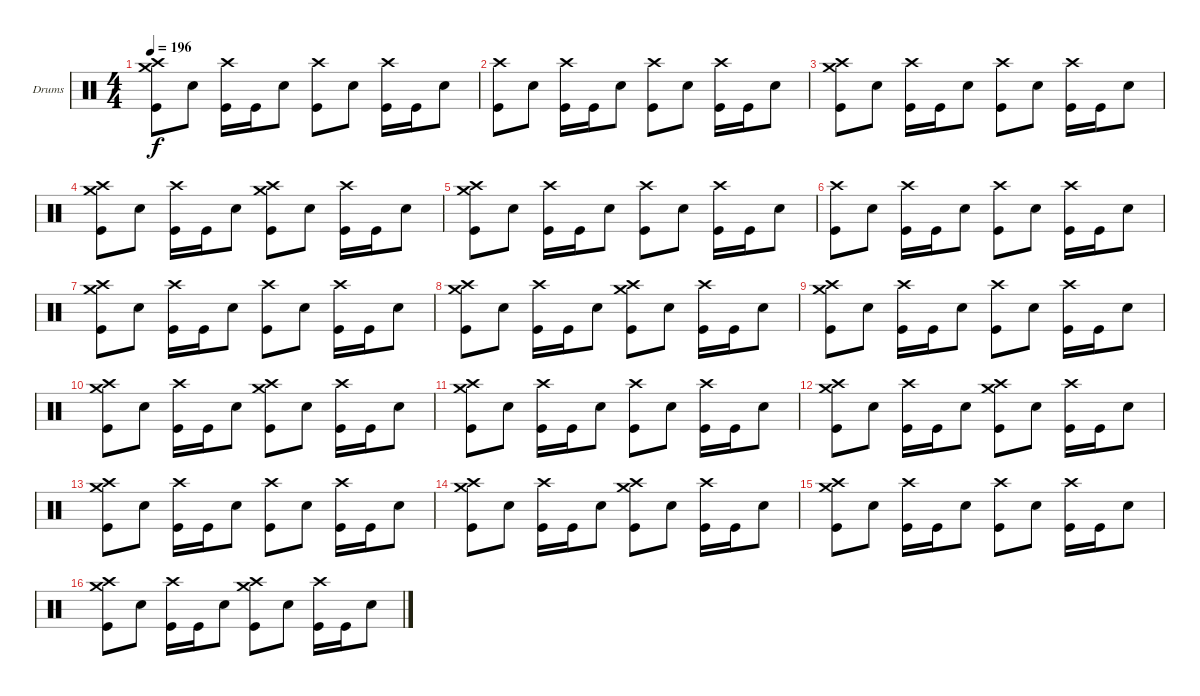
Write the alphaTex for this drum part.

\defaultSystemsLayout 4
\bracketExtendMode groupsimilarinstruments
\firstSystemTrackNameOrientation horizontal
\otherSystemsTrackNameOrientation horizontal
\track ("Lars Ulrich (Drum)" "Drums") {instrument percussion}
\staff {score}
\articulation defaults
\ts (4 4)
\tempo 196
\clef neutral
\scale
0.333333
\ks c
("Crash high (hit)" "Crash medium (hit)" "Kick (hit)").8{dy f} "Snare (hit) 2".8 ("Crash high (hit)" "Kick (hit)").16 "Kick (hit)".16 "Snare (hit) 2".8 ("Crash high (hit)" "Kick (hit)").8 "Snare (hit) 2".8 ("Crash high (hit)" "Kick (hit)").16 "Kick (hit)".16 "Snare (hit) 2".8 |
\scale
0.333333 ("Crash high (hit)" "Kick (hit)").8 "Snare (hit) 2".8 ("Crash high (hit)" "Kick (hit)").16 "Kick (hit)".16 "Snare (hit) 2".8 ("Crash high (hit)" "Kick (hit)").8 "Snare (hit) 2".8 ("Crash high (hit)" "Kick (hit)").16 "Kick (hit)".16 "Snare (hit) 2".8 |
\scale
0.333333 ("Crash high (hit)" "Crash medium (hit)" "Kick (hit)").8 "Snare (hit) 2".8 ("Crash high (hit)" "Kick (hit)").16 "Kick (hit)".16 "Snare (hit) 2".8 ("Crash high (hit)" "Kick (hit)").8 "Snare (hit) 2".8 ("Crash high (hit)" "Kick (hit)").16 "Kick (hit)".16 "Snare (hit) 2".8 |
\scale
0.333333 ("Crash high (hit)" "Crash medium (hit)" "Kick (hit)").8 "Snare (hit) 2".8 ("Crash high (hit)" "Kick (hit)").16 "Kick (hit)".16 "Snare (hit) 2".8 ("Crash high (hit)" "Crash medium (hit)" "Kick (hit)").8 "Snare (hit) 2".8 ("Crash high (hit)" "Kick (hit)").16 "Kick (hit)".16 "Snare (hit) 2".8 |
\scale
0.333333 ("Crash high (hit)" "Crash medium (hit)" "Kick (hit)").8 "Snare (hit) 2".8 ("Crash high (hit)" "Kick (hit)").16 "Kick (hit)".16 "Snare (hit) 2".8 ("Crash high (hit)" "Kick (hit)").8 "Snare (hit) 2".8 ("Crash high (hit)" "Kick (hit)").16 "Kick (hit)".16 "Snare (hit) 2".8 |
\scale
0.333333 ("Crash high (hit)" "Kick (hit)").8 "Snare (hit) 2".8 ("Crash high (hit)" "Kick (hit)").16 "Kick (hit)".16 "Snare (hit) 2".8 ("Crash high (hit)" "Kick (hit)").8 "Snare (hit) 2".8 ("Crash high (hit)" "Kick (hit)").16 "Kick (hit)".16 "Snare (hit) 2".8 |
\scale
0.333333 ("Crash high (hit)" "Crash medium (hit)" "Kick (hit)").8 "Snare (hit) 2".8 ("Crash high (hit)" "Kick (hit)").16 "Kick (hit)".16 "Snare (hit) 2".8 ("Crash high (hit)" "Kick (hit)").8 "Snare (hit) 2".8 ("Crash high (hit)" "Kick (hit)").16 "Kick (hit)".16 "Snare (hit) 2".8 |
\scale
0.333333 ("Crash high (hit)" "Crash medium (hit)" "Kick (hit)").8 "Snare (hit) 2".8 ("Crash high (hit)" "Kick (hit)").16 "Kick (hit)".16 "Snare (hit) 2".8 ("Crash high (hit)" "Crash medium (hit)" "Kick (hit)").8 "Snare (hit) 2".8 ("Crash high (hit)" "Kick (hit)").16 "Kick (hit)".16 "Snare (hit) 2".8 |
\scale
0.333333 ("Crash high (hit)" "Crash medium (hit)" "Kick (hit)").8 "Snare (hit) 2".8 ("Crash high (hit)" "Kick (hit)").16 "Kick (hit)".16 "Snare (hit) 2".8 ("Crash high (hit)" "Kick (hit)").8 "Snare (hit) 2".8 ("Crash high (hit)" "Kick (hit)").16 "Kick (hit)".16 "Snare (hit) 2".8 |
\scale
0.333333 ("Crash high (hit)" "Crash medium (hit)" "Kick (hit)").8 "Snare (hit) 2".8 ("Crash high (hit)" "Kick (hit)").16 "Kick (hit)".16 "Snare (hit) 2".8 ("Crash high (hit)" "Crash medium (hit)" "Kick (hit)").8 "Snare (hit) 2".8 ("Crash high (hit)" "Kick (hit)").16 "Kick (hit)".16 "Snare (hit) 2".8 |
\scale
0.333333 ("Crash high (hit)" "Crash medium (hit)" "Kick (hit)").8 "Snare (hit) 2".8 ("Crash high (hit)" "Kick (hit)").16 "Kick (hit)".16 "Snare (hit) 2".8 ("Crash high (hit)" "Kick (hit)").8 "Snare (hit) 2".8 ("Crash high (hit)" "Kick (hit)").16 "Kick (hit)".16 "Snare (hit) 2".8 |
\scale
0.333333 ("Crash high (hit)" "Crash medium (hit)" "Kick (hit)").8 "Snare (hit) 2".8 ("Crash high (hit)" "Kick (hit)").16 "Kick (hit)".16 "Snare (hit) 2".8 ("Crash high (hit)" "Crash medium (hit)" "Kick (hit)").8 "Snare (hit) 2".8 ("Crash high (hit)" "Kick (hit)").16 "Kick (hit)".16 "Snare (hit) 2".8 |
\scale
0.333333 ("Crash high (hit)" "Crash medium (hit)" "Kick (hit)").8 "Snare (hit) 2".8 ("Crash high (hit)" "Kick (hit)").16 "Kick (hit)".16 "Snare (hit) 2".8 ("Crash high (hit)" "Kick (hit)").8 "Snare (hit) 2".8 ("Crash high (hit)" "Kick (hit)").16 "Kick (hit)".16 "Snare (hit) 2".8 |
\scale
0.333333 ("Crash high (hit)" "Crash medium (hit)" "Kick (hit)").8 "Snare (hit) 2".8 ("Crash high (hit)" "Kick (hit)").16 "Kick (hit)".16 "Snare (hit) 2".8 ("Crash high (hit)" "Crash medium (hit)" "Kick (hit)").8 "Snare (hit) 2".8 ("Crash high (hit)" "Kick (hit)").16 "Kick (hit)".16 "Snare (hit) 2".8 |
\scale
0.333333 ("Crash high (hit)" "Crash medium (hit)" "Kick (hit)").8 "Snare (hit) 2".8 ("Crash high (hit)" "Kick (hit)").16 "Kick (hit)".16 "Snare (hit) 2".8 ("Crash high (hit)" "Kick (hit)").8 "Snare (hit) 2".8 ("Crash high (hit)" "Kick (hit)").16 "Kick (hit)".16 "Snare (hit) 2".8 |
\scale
0.333333 ("Crash high (hit)" "Crash medium (hit)" "Kick (hit)").8 "Snare (hit) 2".8 ("Crash high (hit)" "Kick (hit)").16 "Kick (hit)".16 "Snare (hit) 2".8 ("Crash high (hit)" "Crash medium (hit)" "Kick (hit)").8 "Snare (hit) 2".8 ("Crash high (hit)" "Kick (hit)").16 "Kick (hit)".16 "Snare (hit) 2".8
